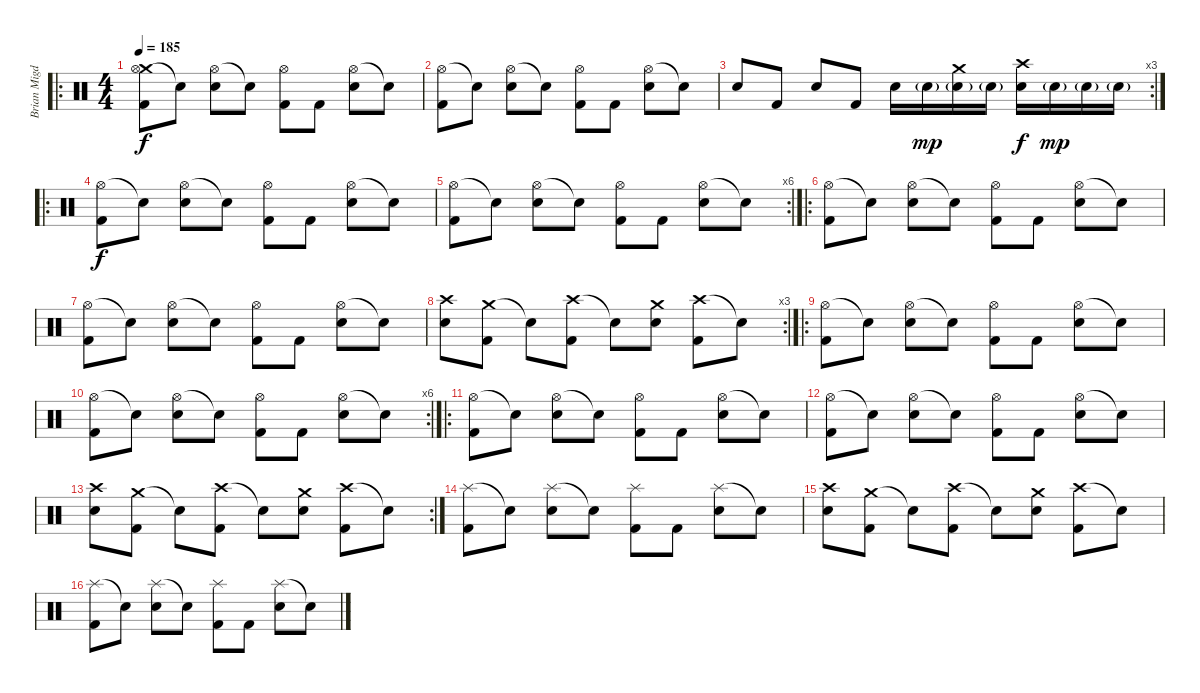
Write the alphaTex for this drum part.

\track ("Brian Migdol- Drums" "Brian Migd") {instrument percussion}
\staff {score}
\articulation defaults
\ro
\ts (4 4)
\tempo 185
\clef neutral
\ks c
("Crash medium (hit)" "Hi-Hat (open)" "Kick (hit) 2").8{dy f} "Snare (hit)"{t}.8 ("Hi-Hat (open)" "Snare (hit) 2").8 "Snare (hit)"{t}.8 ("Hi-Hat (open)" "Kick (hit) 2").8 "Kick (hit) 2".8 ("Hi-Hat (open)" "Snare (hit) 2").8 "Snare (hit)"{t}.8 |
("Hi-Hat (open)" "Kick (hit) 2").8 "Snare (hit)"{t}.8 ("Hi-Hat (open)" "Snare (hit) 2").8 "Snare (hit)"{t}.8 ("Hi-Hat (open)" "Kick (hit) 2").8 "Kick (hit) 2".8 ("Hi-Hat (open)" "Snare (hit) 2").8 "Snare (hit)"{t}.8 |
\rc 3 "Snare (hit) 2".8 "Kick (hit) 2".8 "Snare (hit) 2".8 "Kick (hit) 2".8 "Snare (hit) 2".16 "Snare (hit) 2"{g}.16{dy mp}
("Crash medium (hit)" "Snare (hit) 2"{g}).16 "Snare (hit) 2"{g}.16 ("Crash high (hit)" "Snare (hit) 2").16{dy f} "Snare (hit) 2"{g}.16{dy mp} "Snare (hit) 2"{g}.16 "Snare (hit) 2"{g}.16 |
\ro
("Hi-Hat (open)" "Kick (hit) 2").8{dy f} "Snare (hit)"{t}.8 ("Hi-Hat (open)" "Snare (hit) 2").8 "Snare (hit)"{t}.8 ("Hi-Hat (open)" "Kick (hit) 2").8 "Kick (hit) 2".8 ("Hi-Hat (open)" "Snare (hit) 2").8 "Snare (hit)"{t}.8 |
\rc 6
("Hi-Hat (open)" "Kick (hit) 2").8 "Snare (hit)"{t}.8 ("Hi-Hat (open)" "Snare (hit) 2").8 "Snare (hit)"{t}.8 ("Hi-Hat (open)" "Kick (hit) 2").8 "Kick (hit) 2".8 ("Hi-Hat (open)" "Snare (hit) 2").8 "Snare (hit)"{t}.8 |
\ro
("Hi-Hat (open)" "Kick (hit) 2").8 "Snare (hit)"{t}.8 ("Hi-Hat (open)" "Snare (hit) 2").8 "Snare (hit)"{t}.8 ("Hi-Hat (open)" "Kick (hit) 2").8 "Kick (hit) 2".8 ("Hi-Hat (open)" "Snare (hit) 2").8 "Snare (hit)"{t}.8 |
("Hi-Hat (open)" "Kick (hit) 2").8 "Snare (hit)"{t}.8 ("Hi-Hat (open)" "Snare (hit) 2").8 "Snare (hit)"{t}.8 ("Hi-Hat (open)" "Kick (hit) 2").8 "Kick (hit) 2".8 ("Hi-Hat (open)" "Snare (hit) 2").8 "Snare (hit)"{t}.8 |
\rc 3
("Crash high (hit)" "Snare (hit) 2").8 ("Crash medium (hit)" "Kick (hit) 2").8 "Snare (hit)"{t}.8 ("Crash high (hit)" "Kick (hit) 2").8 "Snare (hit)"{t}.8 ("Crash medium (hit)" "Snare (hit) 2").8 ("Crash high (hit)" "Kick (hit) 2").8 "Snare (hit)"{t}.8 |
\ro
("Hi-Hat (open)" "Kick (hit) 2").8 "Snare (hit)"{t}.8 ("Hi-Hat (open)" "Snare (hit) 2").8 "Snare (hit)"{t}.8 ("Hi-Hat (open)" "Kick (hit) 2").8 "Kick (hit) 2".8 ("Hi-Hat (open)" "Snare (hit) 2").8 "Snare (hit)"{t}.8 |
\rc 6
("Hi-Hat (open)" "Kick (hit) 2").8 "Snare (hit)"{t}.8 ("Hi-Hat (open)" "Snare (hit) 2").8 "Snare (hit)"{t}.8 ("Hi-Hat (open)" "Kick (hit) 2").8 "Kick (hit) 2".8 ("Hi-Hat (open)" "Snare (hit) 2").8 "Snare (hit)"{t}.8 |
\ro
("Hi-Hat (open)" "Kick (hit) 2").8 "Snare (hit)"{t}.8 ("Hi-Hat (open)" "Snare (hit) 2").8 "Snare (hit)"{t}.8 ("Hi-Hat (open)" "Kick (hit) 2").8 "Kick (hit) 2".8 ("Hi-Hat (open)" "Snare (hit) 2").8 "Snare (hit)"{t}.8 |
("Hi-Hat (open)" "Kick (hit) 2").8 "Snare (hit)"{t}.8 ("Hi-Hat (open)" "Snare (hit) 2").8 "Snare (hit)"{t}.8 ("Hi-Hat (open)" "Kick (hit) 2").8 "Kick (hit) 2".8 ("Hi-Hat (open)" "Snare (hit) 2").8 "Snare (hit)"{t}.8 |
\rc 2
("Crash high (hit)" "Snare (hit) 2").8 ("Crash medium (hit)" "Kick (hit) 2").8 "Snare (hit)"{t}.8 ("Crash high (hit)" "Kick (hit) 2").8 "Snare (hit)"{t}.8 ("Crash medium (hit)" "Snare (hit) 2").8 ("Crash high (hit)" "Kick (hit) 2").8 "Snare (hit)"{t}.8 |
("Splash (hit)" "Kick (hit) 2").8 "Snare (hit)"{t}.8 ("Splash (hit)" "Snare (hit) 2").8 "Snare (hit)"{t}.8 ("Splash (hit)" "Kick (hit) 2").8 "Kick (hit) 2".8 ("Splash (hit)" "Snare (hit) 2").8 "Snare (hit)"{t}.8 |
("Crash high (hit)" "Snare (hit) 2").8 ("Crash medium (hit)" "Kick (hit) 2").8 "Snare (hit)"{t}.8 ("Crash high (hit)" "Kick (hit) 2").8 "Snare (hit)"{t}.8 ("Crash medium (hit)" "Snare (hit) 2").8 ("Crash high (hit)" "Kick (hit) 2").8 "Snare (hit)"{t}.8 |
("Splash (hit)" "Kick (hit) 2").8 "Snare (hit)"{t}.8 ("Splash (hit)" "Snare (hit) 2").8 "Snare (hit)"{t}.8 ("Splash (hit)" "Kick (hit) 2").8 "Kick (hit) 2".8 ("Splash (hit)" "Snare (hit) 2").8 "Snare (hit)"{t}.8
